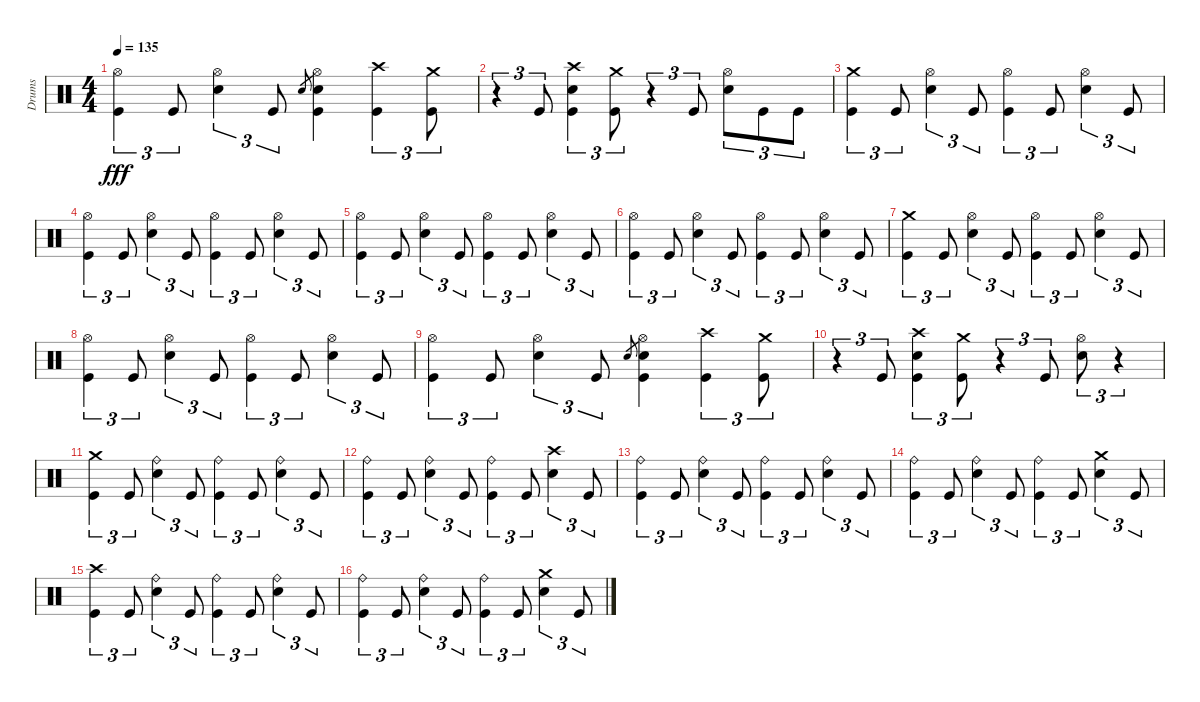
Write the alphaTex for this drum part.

\track ("Drums" "Drums") {instrument percussion}
\staff {score}
\articulation defaults
\ts (4 4)
\tempo 135
\clef neutral
\ks c
("Hi-Hat (open)" "Kick (hit)").4{tu (3 2) dy fff} "Kick (hit)".8{tu (3 2)} ("Hi-Hat (open)" "Snare (hit) 2").4{tu (3 2)} "Kick (hit)".8{tu (3 2)} "Snare (hit) 2".8{gr} ("Hi-Hat (open)" "Snare (hit) 2" "Kick (hit)").4 ("Crash high (hit)" "Kick (hit)").4{tu (3 2)} ("Crash medium (hit)" "Kick (hit)").8{tu (3 2)} |
r.4{tu (3 2)} "Kick (hit)".8{tu (3 2)} ("Crash high (hit)" "Snare (hit) 2" "Kick (hit)").4{tu (3 2)} ("Crash medium (hit)" "Kick (hit)").8{tu (3 2)} r.4{tu (3 2)} "Kick (hit)".8{tu (3 2)} ("Hi-Hat (open)" "Snare (hit) 2").8{tu (3 2)} "Kick (hit)".8{tu (3 2)} "Kick (hit)".8{tu (3 2)} |
("Crash medium (hit)" "Kick (hit)").4{tu (3 2)} "Kick (hit)".8{tu (3 2)} ("Hi-Hat (open)" "Snare (hit) 2").4{tu (3 2)} "Kick (hit)".8{tu (3 2)} ("Hi-Hat (open)" "Kick (hit)").4{tu (3 2)} "Kick (hit)".8{tu (3 2)} ("Hi-Hat (open)" "Snare (hit) 2").4{tu (3 2)} "Kick (hit)".8{tu (3 2)} |
("Hi-Hat (open)" "Kick (hit)").4{tu (3 2)} "Kick (hit)".8{tu (3 2)} ("Hi-Hat (open)" "Snare (hit) 2").4{tu (3 2)} "Kick (hit)".8{tu (3 2)} ("Hi-Hat (open)" "Kick (hit)").4{tu (3 2)} "Kick (hit)".8{tu (3 2)} ("Hi-Hat (open)" "Snare (hit) 2").4{tu (3 2)} "Kick (hit)".8{tu (3 2)} |
("Hi-Hat (open)" "Kick (hit)").4{tu (3 2)} "Kick (hit)".8{tu (3 2)} ("Hi-Hat (open)" "Snare (hit) 2").4{tu (3 2)} "Kick (hit)".8{tu (3 2)} ("Hi-Hat (open)" "Kick (hit)").4{tu (3 2)} "Kick (hit)".8{tu (3 2)} ("Hi-Hat (open)" "Snare (hit) 2").4{tu (3 2)} "Kick (hit)".8{tu (3 2)} |
("Hi-Hat (open)" "Kick (hit)").4{tu (3 2)} "Kick (hit)".8{tu (3 2)} ("Hi-Hat (open)" "Snare (hit) 2").4{tu (3 2)} "Kick (hit)".8{tu (3 2)} ("Hi-Hat (open)" "Kick (hit)").4{tu (3 2)} "Kick (hit)".8{tu (3 2)} ("Hi-Hat (open)" "Snare (hit) 2").4{tu (3 2)} "Kick (hit)".8{tu (3 2)} |
("Crash medium (hit)" "Kick (hit)").4{tu (3 2)} "Kick (hit)".8{tu (3 2)} ("Hi-Hat (open)" "Snare (hit) 2").4{tu (3 2)} "Kick (hit)".8{tu (3 2)} ("Hi-Hat (open)" "Kick (hit)").4{tu (3 2)} "Kick (hit)".8{tu (3 2)} ("Hi-Hat (open)" "Snare (hit) 2").4{tu (3 2)} "Kick (hit)".8{tu (3 2)} |
("Hi-Hat (open)" "Kick (hit)").4{tu (3 2)} "Kick (hit)".8{tu (3 2)} ("Hi-Hat (open)" "Snare (hit) 2").4{tu (3 2)} "Kick (hit)".8{tu (3 2)} ("Hi-Hat (open)" "Kick (hit)").4{tu (3 2)} "Kick (hit)".8{tu (3 2)} ("Hi-Hat (open)" "Snare (hit) 2").4{tu (3 2)} "Kick (hit)".8{tu (3 2)} |
("Hi-Hat (open)" "Kick (hit)").4{tu (3 2)} "Kick (hit)".8{tu (3 2)} ("Hi-Hat (open)" "Snare (hit) 2").4{tu (3 2)} "Kick (hit)".8{tu (3 2)} "Snare (hit) 2".8{gr} ("Hi-Hat (open)" "Snare (hit) 2" "Kick (hit)").4 ("Crash high (hit)" "Kick (hit)").4{tu (3 2)} ("Crash medium (hit)" "Kick (hit)").8{tu (3 2)} |
r.4{tu (3 2)} "Kick (hit)".8{tu (3 2)} ("Crash high (hit)" "Snare (hit) 2" "Kick (hit)").4{tu (3 2)} ("Crash medium (hit)" "Kick (hit)").8{tu (3 2)} r.4{tu (3 2)} "Kick (hit)".8{tu (3 2)} ("Hi-Hat (open)" "Snare (hit) 2").8{tu (3 2)} r.4{tu (3 2)} |
("Crash medium (hit)" "Kick (hit)").4{tu (3 2)} "Kick (hit)".8{tu (3 2)} ("Ride (bell)" "Snare (hit) 2").4{tu (3 2)} "Kick (hit)".8{tu (3 2)} ("Ride (bell)" "Kick (hit)").4{tu (3 2)} "Kick (hit)".8{tu (3 2)} ("Ride (bell)" "Snare (hit) 2").4{tu (3 2)} "Kick (hit)".8{tu (3 2)} |
("Ride (bell)" "Kick (hit)").4{tu (3 2)} "Kick (hit)".8{tu (3 2)} ("Ride (bell)" "Snare (hit) 2").4{tu (3 2)} "Kick (hit)".8{tu (3 2)} ("Ride (bell)" "Kick (hit)").4{tu (3 2)} "Kick (hit)".8{tu (3 2)} ("Crash high (hit)" "Snare (hit) 2").4{tu (3 2)} "Kick (hit)".8{tu (3 2)} |
("Ride (bell)" "Kick (hit)").4{tu (3 2)} "Kick (hit)".8{tu (3 2)} ("Ride (bell)" "Snare (hit) 2").4{tu (3 2)} "Kick (hit)".8{tu (3 2)} ("Ride (bell)" "Kick (hit)").4{tu (3 2)} "Kick (hit)".8{tu (3 2)} ("Ride (bell)" "Snare (hit) 2").4{tu (3 2)} "Kick (hit)".8{tu (3 2)} |
("Ride (bell)" "Kick (hit)").4{tu (3 2)} "Kick (hit)".8{tu (3 2)} ("Ride (bell)" "Snare (hit) 2").4{tu (3 2)} "Kick (hit)".8{tu (3 2)} ("Ride (bell)" "Kick (hit)").4{tu (3 2)} "Kick (hit)".8{tu (3 2)} ("Crash medium (hit)" "Snare (hit) 2").4{tu (3 2)} "Kick (hit)".8{tu (3 2)} |
("Crash high (hit)" "Kick (hit)").4{tu (3 2)} "Kick (hit)".8{tu (3 2)} ("Ride (bell)" "Snare (hit) 2").4{tu (3 2)} "Kick (hit)".8{tu (3 2)} ("Ride (bell)" "Kick (hit)").4{tu (3 2)} "Kick (hit)".8{tu (3 2)} ("Ride (bell)" "Snare (hit) 2").4{tu (3 2)} "Kick (hit)".8{tu (3 2)} |
("Ride (bell)" "Kick (hit)").4{tu (3 2)} "Kick (hit)".8{tu (3 2)} ("Ride (bell)" "Snare (hit) 2").4{tu (3 2)} "Kick (hit)".8{tu (3 2)} ("Ride (bell)" "Kick (hit)").4{tu (3 2)} "Kick (hit)".8{tu (3 2)} ("Crash medium (hit)" "Snare (hit) 2").4{tu (3 2)} "Kick (hit)".8{tu (3 2)}
